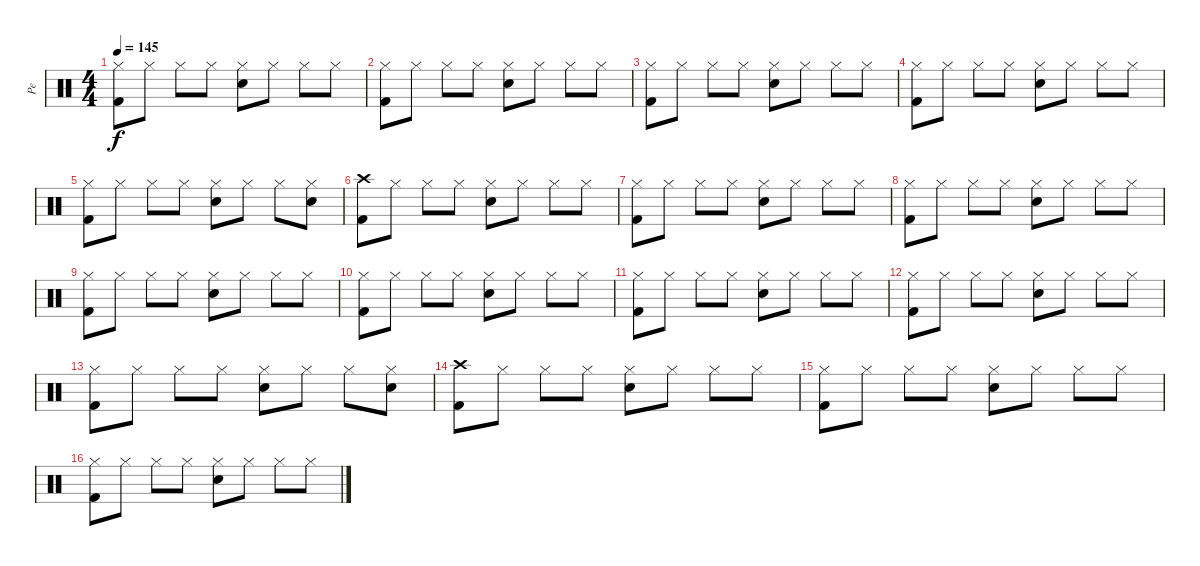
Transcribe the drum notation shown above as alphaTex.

\track ("Pe" "Pe") {instrument percussion}
\staff {score}
\articulation defaults
\ts (4 4)
\tempo 145
\clef neutral
\ks c
("Kick (hit) 2" "Hi-Hat (closed)").8{dy f} "Hi-Hat (closed)".8 "Hi-Hat (closed)".8 "Hi-Hat (closed)".8 ("Snare (hit) 2" "Hi-Hat (closed)").8 "Hi-Hat (closed)".8 "Hi-Hat (closed)".8 "Hi-Hat (closed)".8 |
("Kick (hit) 2" "Hi-Hat (closed)").8 "Hi-Hat (closed)".8 "Hi-Hat (closed)".8 "Hi-Hat (closed)".8 ("Snare (hit) 2" "Hi-Hat (closed)").8 "Hi-Hat (closed)".8 "Hi-Hat (closed)".8 "Hi-Hat (closed)".8 |
("Kick (hit) 2" "Hi-Hat (closed)").8 "Hi-Hat (closed)".8 "Hi-Hat (closed)".8 "Hi-Hat (closed)".8 ("Snare (hit) 2" "Hi-Hat (closed)").8 "Hi-Hat (closed)".8 "Hi-Hat (closed)".8 "Hi-Hat (closed)".8 |
("Kick (hit) 2" "Hi-Hat (closed)").8 "Hi-Hat (closed)".8 "Hi-Hat (closed)".8 "Hi-Hat (closed)".8 ("Snare (hit) 2" "Hi-Hat (closed)").8 "Hi-Hat (closed)".8 "Hi-Hat (closed)".8 "Hi-Hat (closed)".8 |
("Kick (hit) 2" "Hi-Hat (closed)").8 "Hi-Hat (closed)".8 "Hi-Hat (closed)".8 "Hi-Hat (closed)".8 ("Snare (hit) 2" "Hi-Hat (closed)").8 "Hi-Hat (closed)".8 "Hi-Hat (closed)".8 ("Snare (hit) 2" "Hi-Hat (closed)").8 |
("Kick (hit) 2" "Crash high (hit)").8 "Hi-Hat (closed)".8 "Hi-Hat (closed)".8 "Hi-Hat (closed)".8 ("Snare (hit) 2" "Hi-Hat (closed)").8 "Hi-Hat (closed)".8 "Hi-Hat (closed)".8 "Hi-Hat (closed)".8 |
("Kick (hit) 2" "Hi-Hat (closed)").8 "Hi-Hat (closed)".8 "Hi-Hat (closed)".8 "Hi-Hat (closed)".8 ("Snare (hit) 2" "Hi-Hat (closed)").8 "Hi-Hat (closed)".8 "Hi-Hat (closed)".8 "Hi-Hat (closed)".8 |
("Kick (hit) 2" "Hi-Hat (closed)").8 "Hi-Hat (closed)".8 "Hi-Hat (closed)".8 "Hi-Hat (closed)".8 ("Snare (hit) 2" "Hi-Hat (closed)").8 "Hi-Hat (closed)".8 "Hi-Hat (closed)".8 "Hi-Hat (closed)".8 |
("Kick (hit) 2" "Hi-Hat (closed)").8 "Hi-Hat (closed)".8 "Hi-Hat (closed)".8 "Hi-Hat (closed)".8 ("Snare (hit) 2" "Hi-Hat (closed)").8 "Hi-Hat (closed)".8 "Hi-Hat (closed)".8 "Hi-Hat (closed)".8 |
("Kick (hit) 2" "Hi-Hat (closed)").8 "Hi-Hat (closed)".8 "Hi-Hat (closed)".8 "Hi-Hat (closed)".8 ("Snare (hit) 2" "Hi-Hat (closed)").8 "Hi-Hat (closed)".8 "Hi-Hat (closed)".8 "Hi-Hat (closed)".8 |
("Kick (hit) 2" "Hi-Hat (closed)").8 "Hi-Hat (closed)".8 "Hi-Hat (closed)".8 "Hi-Hat (closed)".8 ("Snare (hit) 2" "Hi-Hat (closed)").8 "Hi-Hat (closed)".8 "Hi-Hat (closed)".8 "Hi-Hat (closed)".8 |
("Kick (hit) 2" "Hi-Hat (closed)").8 "Hi-Hat (closed)".8 "Hi-Hat (closed)".8 "Hi-Hat (closed)".8 ("Snare (hit) 2" "Hi-Hat (closed)").8 "Hi-Hat (closed)".8 "Hi-Hat (closed)".8 "Hi-Hat (closed)".8 |
("Kick (hit) 2" "Hi-Hat (closed)").8 "Hi-Hat (closed)".8 "Hi-Hat (closed)".8 "Hi-Hat (closed)".8 ("Snare (hit) 2" "Hi-Hat (closed)").8 "Hi-Hat (closed)".8 "Hi-Hat (closed)".8 ("Snare (hit) 2" "Hi-Hat (closed)").8 |
("Kick (hit) 2" "Crash high (hit)").8 "Hi-Hat (closed)".8 "Hi-Hat (closed)".8 "Hi-Hat (closed)".8 ("Snare (hit) 2" "Hi-Hat (closed)").8 "Hi-Hat (closed)".8 "Hi-Hat (closed)".8 "Hi-Hat (closed)".8 |
("Kick (hit) 2" "Hi-Hat (closed)").8 "Hi-Hat (closed)".8 "Hi-Hat (closed)".8 "Hi-Hat (closed)".8 ("Snare (hit) 2" "Hi-Hat (closed)").8 "Hi-Hat (closed)".8 "Hi-Hat (closed)".8 "Hi-Hat (closed)".8 |
("Kick (hit) 2" "Hi-Hat (closed)").8 "Hi-Hat (closed)".8 "Hi-Hat (closed)".8 "Hi-Hat (closed)".8 ("Snare (hit) 2" "Hi-Hat (closed)").8 "Hi-Hat (closed)".8 "Hi-Hat (closed)".8 "Hi-Hat (closed)".8
